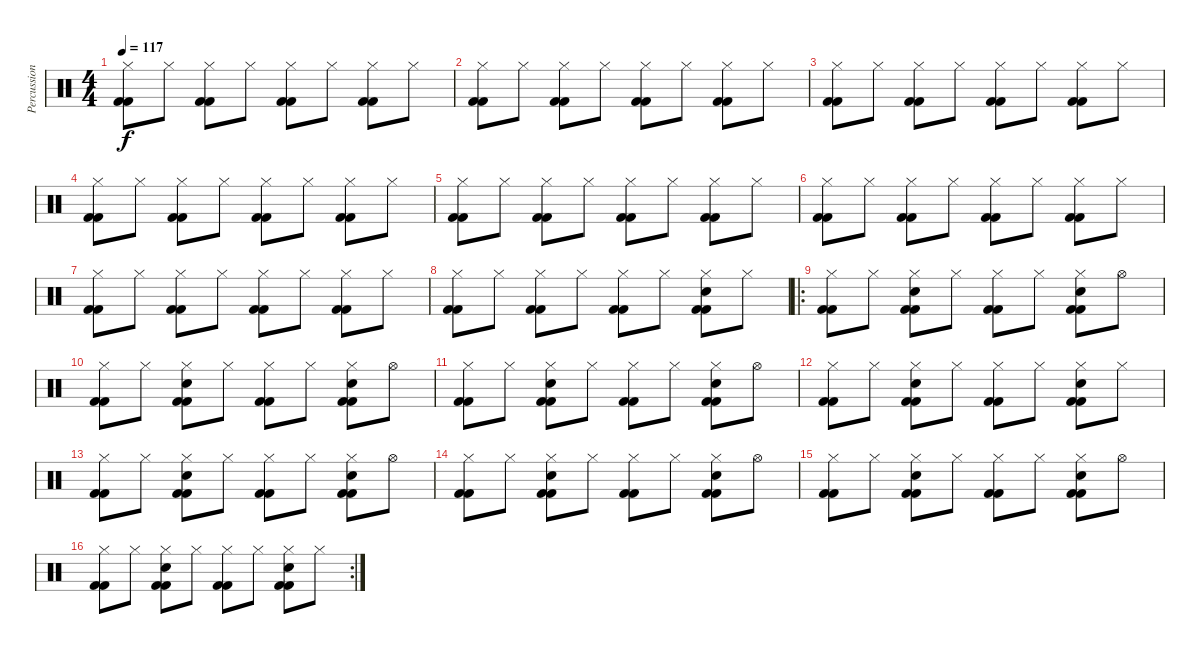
\track ("Percussions" "Percussion") {instrument percussion}
\staff {score}
\articulation defaults
\ts (4 4)
\tempo 117
\clef neutral
\ks c
("Kick (hit) 2" "Kick (hit) 2" "Hi-Hat (closed)").8{dy f} "Hi-Hat (closed)".8 ("Kick (hit) 2" "Kick (hit) 2" "Hi-Hat (closed)").8 "Hi-Hat (closed)".8 ("Kick (hit) 2" "Kick (hit) 2" "Hi-Hat (closed)").8 "Hi-Hat (closed)".8 ("Kick (hit) 2" "Kick (hit) 2" "Hi-Hat (closed)").8 "Hi-Hat (closed)".8 |
("Kick (hit) 2" "Kick (hit) 2" "Hi-Hat (closed)").8 "Hi-Hat (closed)".8 ("Kick (hit) 2" "Kick (hit) 2" "Hi-Hat (closed)").8 "Hi-Hat (closed)".8 ("Kick (hit) 2" "Kick (hit) 2" "Hi-Hat (closed)").8 "Hi-Hat (closed)".8 ("Kick (hit) 2" "Kick (hit) 2" "Hi-Hat (closed)").8 "Hi-Hat (closed)".8 |
("Kick (hit) 2" "Kick (hit) 2" "Hi-Hat (closed)").8 "Hi-Hat (closed)".8 ("Kick (hit) 2" "Kick (hit) 2" "Hi-Hat (closed)").8 "Hi-Hat (closed)".8 ("Kick (hit) 2" "Kick (hit) 2" "Hi-Hat (closed)").8 "Hi-Hat (closed)".8 ("Kick (hit) 2" "Kick (hit) 2" "Hi-Hat (closed)").8 "Hi-Hat (closed)".8 |
("Kick (hit) 2" "Kick (hit) 2" "Hi-Hat (closed)").8 "Hi-Hat (closed)".8 ("Kick (hit) 2" "Kick (hit) 2" "Hi-Hat (closed)").8 "Hi-Hat (closed)".8 ("Kick (hit) 2" "Kick (hit) 2" "Hi-Hat (closed)").8 "Hi-Hat (closed)".8 ("Kick (hit) 2" "Kick (hit) 2" "Hi-Hat (closed)").8 "Hi-Hat (closed)".8 |
("Kick (hit) 2" "Kick (hit) 2" "Hi-Hat (closed)").8 "Hi-Hat (closed)".8 ("Kick (hit) 2" "Kick (hit) 2" "Hi-Hat (closed)").8 "Hi-Hat (closed)".8 ("Kick (hit) 2" "Kick (hit) 2" "Hi-Hat (closed)").8 "Hi-Hat (closed)".8 ("Kick (hit) 2" "Kick (hit) 2" "Hi-Hat (closed)").8 "Hi-Hat (closed)".8 |
("Kick (hit) 2" "Kick (hit) 2" "Hi-Hat (closed)").8 "Hi-Hat (closed)".8 ("Kick (hit) 2" "Kick (hit) 2" "Hi-Hat (closed)").8 "Hi-Hat (closed)".8 ("Kick (hit) 2" "Kick (hit) 2" "Hi-Hat (closed)").8 "Hi-Hat (closed)".8 ("Kick (hit) 2" "Kick (hit) 2" "Hi-Hat (closed)").8 "Hi-Hat (closed)".8 |
("Kick (hit) 2" "Kick (hit) 2" "Hi-Hat (closed)").8 "Hi-Hat (closed)".8 ("Kick (hit) 2" "Kick (hit) 2" "Hi-Hat (closed)").8 "Hi-Hat (closed)".8 ("Kick (hit) 2" "Kick (hit) 2" "Hi-Hat (closed)").8 "Hi-Hat (closed)".8 ("Kick (hit) 2" "Kick (hit) 2" "Hi-Hat (closed)").8 "Hi-Hat (closed)".8 |
("Kick (hit) 2" "Kick (hit) 2" "Hi-Hat (closed)").8 "Hi-Hat (closed)".8 ("Kick (hit) 2" "Kick (hit) 2" "Hi-Hat (closed)").8 "Hi-Hat (closed)".8 ("Kick (hit) 2" "Kick (hit) 2" "Hi-Hat (closed)").8 "Hi-Hat (closed)".8 ("Kick (hit) 2" "Kick (hit) 2" "Snare (hit) 2" "Hi-Hat (closed)").8 "Hi-Hat (closed)".8 |
\ro
("Kick (hit) 2" "Kick (hit) 2" "Hi-Hat (closed)").8 "Hi-Hat (closed)".8 ("Kick (hit) 2" "Kick (hit) 2" "Snare (hit) 2" "Hi-Hat (closed)").8 "Hi-Hat (closed)".8 ("Kick (hit) 2" "Kick (hit) 2" "Hi-Hat (closed)").8 "Hi-Hat (closed)".8 ("Kick (hit) 2" "Kick (hit) 2" "Snare (hit) 2" "Hi-Hat (closed)").8 "Hi-Hat (open)".8 |
("Kick (hit) 2" "Kick (hit) 2" "Hi-Hat (closed)").8 "Hi-Hat (closed)".8 ("Kick (hit) 2" "Kick (hit) 2" "Snare (hit) 2" "Hi-Hat (closed)").8 "Hi-Hat (closed)".8 ("Kick (hit) 2" "Kick (hit) 2" "Hi-Hat (closed)").8 "Hi-Hat (closed)".8 ("Kick (hit) 2" "Kick (hit) 2" "Snare (hit) 2" "Hi-Hat (closed)").8 "Hi-Hat (open)".8 |
("Kick (hit) 2" "Kick (hit) 2" "Hi-Hat (closed)").8 "Hi-Hat (closed)".8 ("Kick (hit) 2" "Kick (hit) 2" "Snare (hit) 2" "Hi-Hat (closed)").8 "Hi-Hat (closed)".8 ("Kick (hit) 2" "Kick (hit) 2" "Hi-Hat (closed)").8 "Hi-Hat (closed)".8 ("Kick (hit) 2" "Kick (hit) 2" "Snare (hit) 2" "Hi-Hat (closed)").8 "Hi-Hat (open)".8 |
("Kick (hit) 2" "Kick (hit) 2" "Hi-Hat (closed)").8 "Hi-Hat (closed)".8 ("Kick (hit) 2" "Kick (hit) 2" "Snare (hit) 2" "Hi-Hat (closed)").8 "Hi-Hat (closed)".8 ("Kick (hit) 2" "Kick (hit) 2" "Hi-Hat (closed)").8 "Hi-Hat (closed)".8 ("Kick (hit) 2" "Kick (hit) 2" "Snare (hit) 2" "Hi-Hat (closed)").8 "Hi-Hat (closed)".8 |
("Kick (hit) 2" "Kick (hit) 2" "Hi-Hat (closed)").8 "Hi-Hat (closed)".8 ("Kick (hit) 2" "Kick (hit) 2" "Snare (hit) 2" "Hi-Hat (closed)").8 "Hi-Hat (closed)".8 ("Kick (hit) 2" "Kick (hit) 2" "Hi-Hat (closed)").8 "Hi-Hat (closed)".8 ("Kick (hit) 2" "Kick (hit) 2" "Snare (hit) 2" "Hi-Hat (closed)").8 "Hi-Hat (open)".8 |
("Kick (hit) 2" "Kick (hit) 2" "Hi-Hat (closed)").8 "Hi-Hat (closed)".8 ("Kick (hit) 2" "Kick (hit) 2" "Snare (hit) 2" "Hi-Hat (closed)").8 "Hi-Hat (closed)".8 ("Kick (hit) 2" "Kick (hit) 2" "Hi-Hat (closed)").8 "Hi-Hat (closed)".8 ("Kick (hit) 2" "Kick (hit) 2" "Snare (hit) 2" "Hi-Hat (closed)").8 "Hi-Hat (open)".8 |
("Kick (hit) 2" "Kick (hit) 2" "Hi-Hat (closed)").8 "Hi-Hat (closed)".8 ("Kick (hit) 2" "Kick (hit) 2" "Snare (hit) 2" "Hi-Hat (closed)").8 "Hi-Hat (closed)".8 ("Kick (hit) 2" "Kick (hit) 2" "Hi-Hat (closed)").8 "Hi-Hat (closed)".8 ("Kick (hit) 2" "Kick (hit) 2" "Snare (hit) 2" "Hi-Hat (closed)").8 "Hi-Hat (open)".8 |
\rc 2
("Kick (hit) 2" "Kick (hit) 2" "Hi-Hat (closed)").8 "Hi-Hat (closed)".8 ("Kick (hit) 2" "Kick (hit) 2" "Snare (hit) 2" "Hi-Hat (closed)").8 "Hi-Hat (closed)".8 ("Kick (hit) 2" "Kick (hit) 2" "Hi-Hat (closed)").8 "Hi-Hat (closed)".8 ("Kick (hit) 2" "Kick (hit) 2" "Snare (hit) 2" "Hi-Hat (closed)").8 "Hi-Hat (closed)".8
